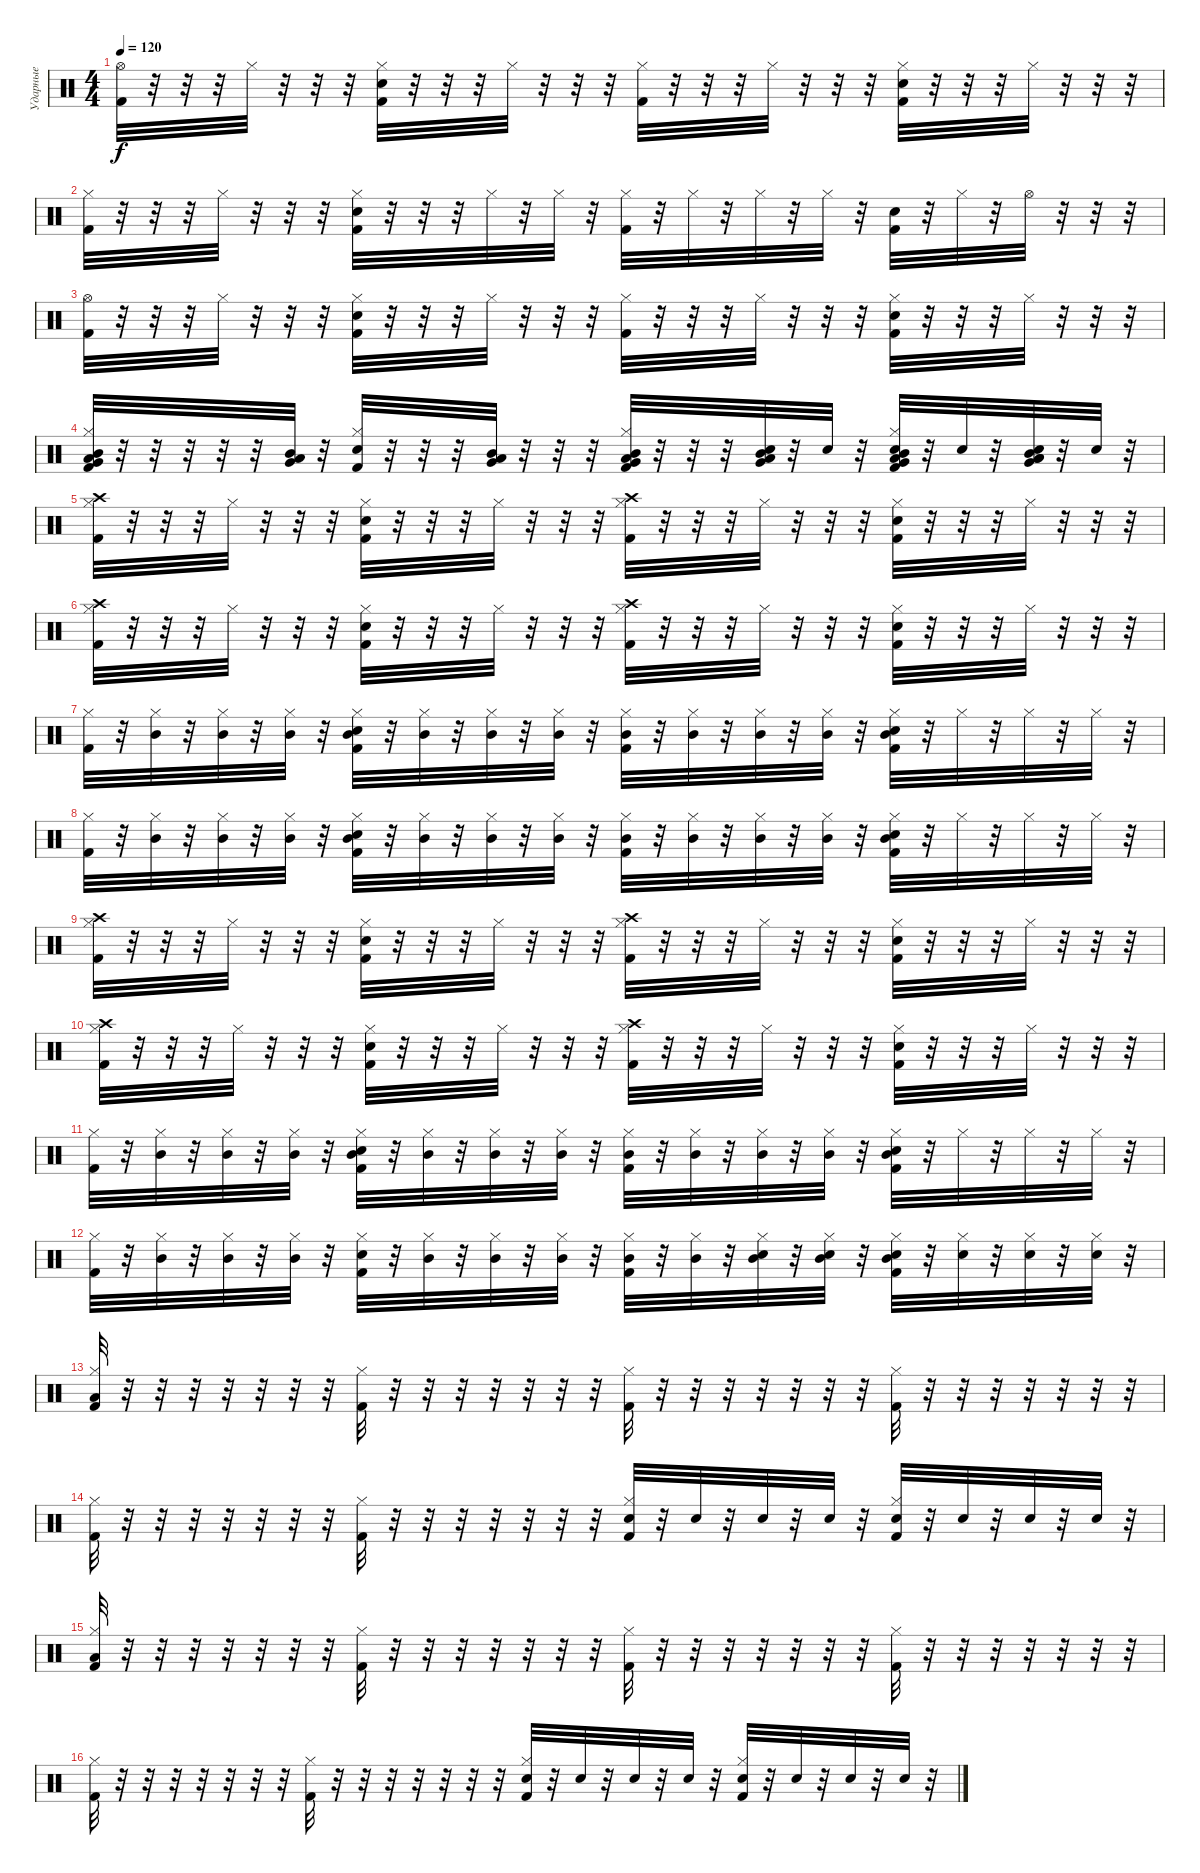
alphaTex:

\track ("Ударные" "Ударные") {instrument percussion}
\staff {score}
\articulation defaults
\ts (4 4)
\tempo 120
\clef neutral
\ks c
("Hi-Hat (open)" "Kick (hit) 2").32{dy f} r.32 r.32 r.32 "Hi-Hat (closed)".32 r.32 r.32 r.32 ("Hi-Hat (closed)" "Kick (hit) 2" "Snare (hit) 2").32 r.32 r.32 r.32 "Hi-Hat (closed)".32 r.32 r.32 r.32 ("Hi-Hat (closed)" "Kick (hit) 2").32 r.32 r.32 r.32 "Hi-Hat (closed)".32 r.32 r.32 r.32 ("Snare (hit) 2" "Kick (hit) 2" "Hi-Hat (closed)").32 r.32 r.32 r.32 "Hi-Hat (closed)".32 r.32 r.32 r.32 |
("Hi-Hat (closed)" "Kick (hit) 2").32 r.32 r.32 r.32 "Hi-Hat (closed)".32 r.32 r.32 r.32 ("Hi-Hat (closed)" "Kick (hit) 2" "Snare (hit) 2").32 r.32 r.32 r.32 "Hi-Hat (closed)".32 r.32 "Hi-Hat (closed)".32 r.32 ("Hi-Hat (closed)" "Kick (hit) 2").32 r.32 "Hi-Hat (closed)".32 r.32 "Hi-Hat (closed)".32 r.32 "Hi-Hat (closed)".32 r.32 ("Snare (hit) 2" "Kick (hit) 2").32 r.32 "Hi-Hat (closed)".32 r.32 "Hi-Hat (open)".32 r.32 r.32 r.32 |
("Hi-Hat (open)" "Kick (hit) 2").32 r.32 r.32 r.32 "Hi-Hat (closed)".32 r.32 r.32 r.32 ("Hi-Hat (closed)" "Kick (hit) 2" "Snare (hit) 2").32 r.32 r.32 r.32 "Hi-Hat (closed)".32 r.32 r.32 r.32 ("Hi-Hat (closed)" "Kick (hit) 2").32 r.32 r.32 r.32 "Hi-Hat (closed)".32 r.32 r.32 r.32 ("Snare (hit) 2" "Kick (hit) 2" "Hi-Hat (closed)").32 r.32 r.32 r.32 "Hi-Hat (closed)".32 r.32 r.32 r.32 |
("Very Low Tom (hit)" "Hi-Hat (closed)" "Kick (hit) 2" "Low Tom (hit)" "Mid Tom (hit)").32 r.32 r.32 r.32 r.32 r.32 ("Very Low Tom (hit)" "Low Tom (hit)" "Mid Tom (hit)").32 r.32 ("Hi-Hat (closed)" "Kick (hit) 2" "Snare (hit) 2").32 r.32 r.32 r.32 ("Very Low Tom (hit)" "Low Tom (hit)" "Mid Tom (hit)").32 r.32 r.32 r.32 ("Very Low Tom (hit)" "Hi-Hat (closed)" "Kick (hit) 2" "Mid Tom (hit)" "Low Tom (hit)").32 r.32 r.32 r.32 ("Very Low Tom (hit)" "Snare (hit) 2" "Mid Tom (hit)" "Low Tom (hit)").32 r.32 "Snare (hit) 2".32 r.32 ("Very Low Tom (hit)" "Snare (hit) 2" "Hi-Hat (closed)" "Kick (hit) 2" "Mid Tom (hit)" "Low Tom (hit)").32 r.32 "Snare (hit) 2".32 r.32 ("Very Low Tom (hit)" "Snare (hit) 2" "Mid Tom (hit)" "Low Tom (hit)" "Low Tom (hit)").32 r.32 "Snare (hit) 2".32 r.32 |
("Crash high (hit)" "Hi-Hat (closed)" "Kick (hit) 2").32 r.32 r.32 r.32 "Hi-Hat (closed)".32 r.32 r.32 r.32 ("Hi-Hat (closed)" "Kick (hit) 2" "Snare (hit) 2").32 r.32 r.32 r.32 "Hi-Hat (closed)".32 r.32 r.32 r.32 ("Crash high (hit)" "Hi-Hat (closed)" "Kick (hit) 2").32 r.32 r.32 r.32 "Hi-Hat (closed)".32 r.32 r.32 r.32 ("Snare (hit) 2" "Kick (hit) 2" "Hi-Hat (closed)").32 r.32 r.32 r.32 "Hi-Hat (closed)".32 r.32 r.32 r.32 |
("Crash high (hit)" "Hi-Hat (closed)" "Kick (hit) 2").32 r.32 r.32 r.32 "Hi-Hat (closed)".32 r.32 r.32 r.32 ("Hi-Hat (closed)" "Kick (hit) 2" "Snare (hit) 2").32 r.32 r.32 r.32 "Hi-Hat (closed)".32 r.32 r.32 r.32 ("Crash high (hit)" "Hi-Hat (closed)" "Kick (hit) 2").32 r.32 r.32 r.32 "Hi-Hat (closed)".32 r.32 r.32 r.32 ("Snare (hit) 2" "Kick (hit) 2" "Hi-Hat (closed)").32 r.32 r.32 r.32 "Hi-Hat (closed)".32 r.32 r.32 r.32 |
("Hi-Hat (closed)" "Kick (hit) 2").32 r.32 ("Hi-Hat (closed)" "Mid Tom (hit)").32 r.32 ("Hi-Hat (closed)" "Mid Tom (hit)").32 r.32 ("Hi-Hat (closed)" "Mid Tom (hit)").32 r.32 ("Hi-Hat (closed)" "Kick (hit) 2" "Snare (hit) 2" "Mid Tom (hit)").32 r.32 ("Hi-Hat (closed)" "Mid Tom (hit)").32 r.32 ("Hi-Hat (closed)" "Mid Tom (hit)").32 r.32 ("Hi-Hat (closed)" "Mid Tom (hit)").32 r.32 ("Hi-Hat (closed)" "Kick (hit) 2" "Mid Tom (hit)").32 r.32 ("Hi-Hat (closed)" "Mid Tom (hit)").32 r.32 ("Hi-Hat (closed)" "Mid Tom (hit)").32 r.32 ("Hi-Hat (closed)" "Mid Tom (hit)").32 r.32 ("Snare (hit) 2" "Kick (hit) 2" "Hi-Hat (closed)" "Mid Tom (hit)").32 r.32 "Hi-Hat (closed)".32 r.32 "Hi-Hat (closed)".32 r.32 "Hi-Hat (closed)".32 r.32 |
("Hi-Hat (closed)" "Kick (hit) 2").32 r.32 ("Hi-Hat (closed)" "Mid Tom (hit)").32 r.32 ("Hi-Hat (closed)" "Mid Tom (hit)").32 r.32 ("Hi-Hat (closed)" "Mid Tom (hit)").32 r.32 ("Hi-Hat (closed)" "Kick (hit) 2" "Snare (hit) 2" "Mid Tom (hit)").32 r.32 ("Hi-Hat (closed)" "Mid Tom (hit)").32 r.32 ("Hi-Hat (closed)" "Mid Tom (hit)").32 r.32 ("Hi-Hat (closed)" "Mid Tom (hit)").32 r.32 ("Hi-Hat (closed)" "Kick (hit) 2" "Mid Tom (hit)").32 r.32 ("Hi-Hat (closed)" "Mid Tom (hit)").32 r.32 ("Hi-Hat (closed)" "Mid Tom (hit)").32 r.32 ("Hi-Hat (closed)" "Mid Tom (hit)").32 r.32 ("Snare (hit) 2" "Kick (hit) 2" "Hi-Hat (closed)" "Mid Tom (hit)").32 r.32 "Hi-Hat (closed)".32 r.32 "Hi-Hat (closed)".32 r.32 "Hi-Hat (closed)".32 r.32 |
("Crash high (hit)" "Hi-Hat (closed)" "Kick (hit) 2").32 r.32 r.32 r.32 "Hi-Hat (closed)".32 r.32 r.32 r.32 ("Hi-Hat (closed)" "Kick (hit) 2" "Snare (hit) 2").32 r.32 r.32 r.32 "Hi-Hat (closed)".32 r.32 r.32 r.32 ("Crash high (hit)" "Hi-Hat (closed)" "Kick (hit) 2").32 r.32 r.32 r.32 "Hi-Hat (closed)".32 r.32 r.32 r.32 ("Snare (hit) 2" "Kick (hit) 2" "Hi-Hat (closed)").32 r.32 r.32 r.32 "Hi-Hat (closed)".32 r.32 r.32 r.32 |
("Crash high (hit)" "Hi-Hat (closed)" "Kick (hit) 2").32 r.32 r.32 r.32 "Hi-Hat (closed)".32 r.32 r.32 r.32 ("Hi-Hat (closed)" "Kick (hit) 2" "Snare (hit) 2").32 r.32 r.32 r.32 "Hi-Hat (closed)".32 r.32 r.32 r.32 ("Crash high (hit)" "Hi-Hat (closed)" "Kick (hit) 2").32 r.32 r.32 r.32 "Hi-Hat (closed)".32 r.32 r.32 r.32 ("Snare (hit) 2" "Kick (hit) 2" "Hi-Hat (closed)").32 r.32 r.32 r.32 "Hi-Hat (closed)".32 r.32 r.32 r.32 |
("Hi-Hat (closed)" "Kick (hit) 2").32 r.32 ("Hi-Hat (closed)" "Mid Tom (hit)").32 r.32 ("Hi-Hat (closed)" "Mid Tom (hit)").32 r.32 ("Hi-Hat (closed)" "Mid Tom (hit)").32 r.32 ("Hi-Hat (closed)" "Kick (hit) 2" "Snare (hit) 2" "Mid Tom (hit)").32 r.32 ("Hi-Hat (closed)" "Mid Tom (hit)").32 r.32 ("Hi-Hat (closed)" "Mid Tom (hit)").32 r.32 ("Hi-Hat (closed)" "Mid Tom (hit)").32 r.32 ("Hi-Hat (closed)" "Kick (hit) 2" "Mid Tom (hit)").32 r.32 ("Hi-Hat (closed)" "Mid Tom (hit)").32 r.32 ("Hi-Hat (closed)" "Mid Tom (hit)").32 r.32 ("Hi-Hat (closed)" "Mid Tom (hit)").32 r.32 ("Snare (hit) 2" "Kick (hit) 2" "Hi-Hat (closed)" "Mid Tom (hit)").32 r.32 "Hi-Hat (closed)".32 r.32 "Hi-Hat (closed)".32 r.32 "Hi-Hat (closed)".32 r.32 |
("Hi-Hat (closed)" "Kick (hit) 2").32 r.32 ("Mid Tom (hit)" "Hi-Hat (closed)").32 r.32 ("Mid Tom (hit)" "Hi-Hat (closed)").32 r.32 ("Mid Tom (hit)" "Hi-Hat (closed)").32 r.32 ("Hi-Hat (closed)" "Kick (hit) 2" "Snare (hit) 2").32 r.32 ("Mid Tom (hit)" "Hi-Hat (closed)").32 r.32 ("Mid Tom (hit)" "Hi-Hat (closed)").32 r.32 ("Mid Tom (hit)" "Hi-Hat (closed)").32 r.32 ("Mid Tom (hit)" "Hi-Hat (closed)" "Kick (hit) 2").32 r.32 ("Mid Tom (hit)" "Hi-Hat (closed)").32 r.32 ("Mid Tom (hit)" "Snare (hit) 2" "Hi-Hat (closed)").32 r.32 ("Mid Tom (hit)" "Snare (hit) 2" "Hi-Hat (closed)").32 r.32 ("Mid Tom (hit)" "Snare (hit) 2" "Kick (hit) 2" "Hi-Hat (closed)").32 r.32 ("Snare (hit) 2" "Hi-Hat (closed)").32 r.32 ("Snare (hit) 2" "Hi-Hat (closed)").32 r.32 ("Snare (hit) 2" "Hi-Hat (closed)").32 r.32 |
("Hi-Hat (closed)" "Kick (hit) 2" "Low Floor Tom (hit)").32 r.32 r.32 r.32 r.32 r.32 r.32 r.32 ("Hi-Hat (closed)" "Kick (hit) 2").32 r.32 r.32 r.32 r.32 r.32 r.32 r.32 ("Hi-Hat (closed)" "Kick (hit) 2").32 r.32 r.32 r.32 r.32 r.32 r.32 r.32 ("Kick (hit) 2" "Hi-Hat (closed)").32 r.32 r.32 r.32 r.32 r.32 r.32 r.32 |
("Hi-Hat (closed)" "Kick (hit) 2").32 r.32 r.32 r.32 r.32 r.32 r.32 r.32 ("Hi-Hat (closed)" "Kick (hit) 2").32 r.32 r.32 r.32 r.32 r.32 r.32 r.32 ("Hi-Hat (closed)" "Kick (hit) 2" "Snare (hit) 2").32 r.32 "Snare (hit) 2".32 r.32 "Snare (hit) 2".32 r.32 "Snare (hit) 2".32 r.32 ("Snare (hit) 2" "Kick (hit) 2" "Hi-Hat (closed)").32 r.32 "Snare (hit) 2".32 r.32 "Snare (hit) 2".32 r.32 "Snare (hit) 2".32 r.32 |
("Hi-Hat (closed)" "Kick (hit) 2" "Low Floor Tom (hit)").32 r.32 r.32 r.32 r.32 r.32 r.32 r.32 ("Hi-Hat (closed)" "Kick (hit) 2").32 r.32 r.32 r.32 r.32 r.32 r.32 r.32 ("Hi-Hat (closed)" "Kick (hit) 2").32 r.32 r.32 r.32 r.32 r.32 r.32 r.32 ("Kick (hit) 2" "Hi-Hat (closed)").32 r.32 r.32 r.32 r.32 r.32 r.32 r.32 |
("Hi-Hat (closed)" "Kick (hit) 2").32 r.32 r.32 r.32 r.32 r.32 r.32 r.32 ("Hi-Hat (closed)" "Kick (hit) 2").32 r.32 r.32 r.32 r.32 r.32 r.32 r.32 ("Hi-Hat (closed)" "Kick (hit) 2" "Snare (hit) 2").32 r.32 "Snare (hit) 2".32 r.32 "Snare (hit) 2".32 r.32 "Snare (hit) 2".32 r.32 ("Snare (hit) 2" "Kick (hit) 2" "Hi-Hat (closed)").32 r.32 "Snare (hit) 2".32 r.32 "Snare (hit) 2".32 r.32 "Snare (hit) 2".32 r.32
